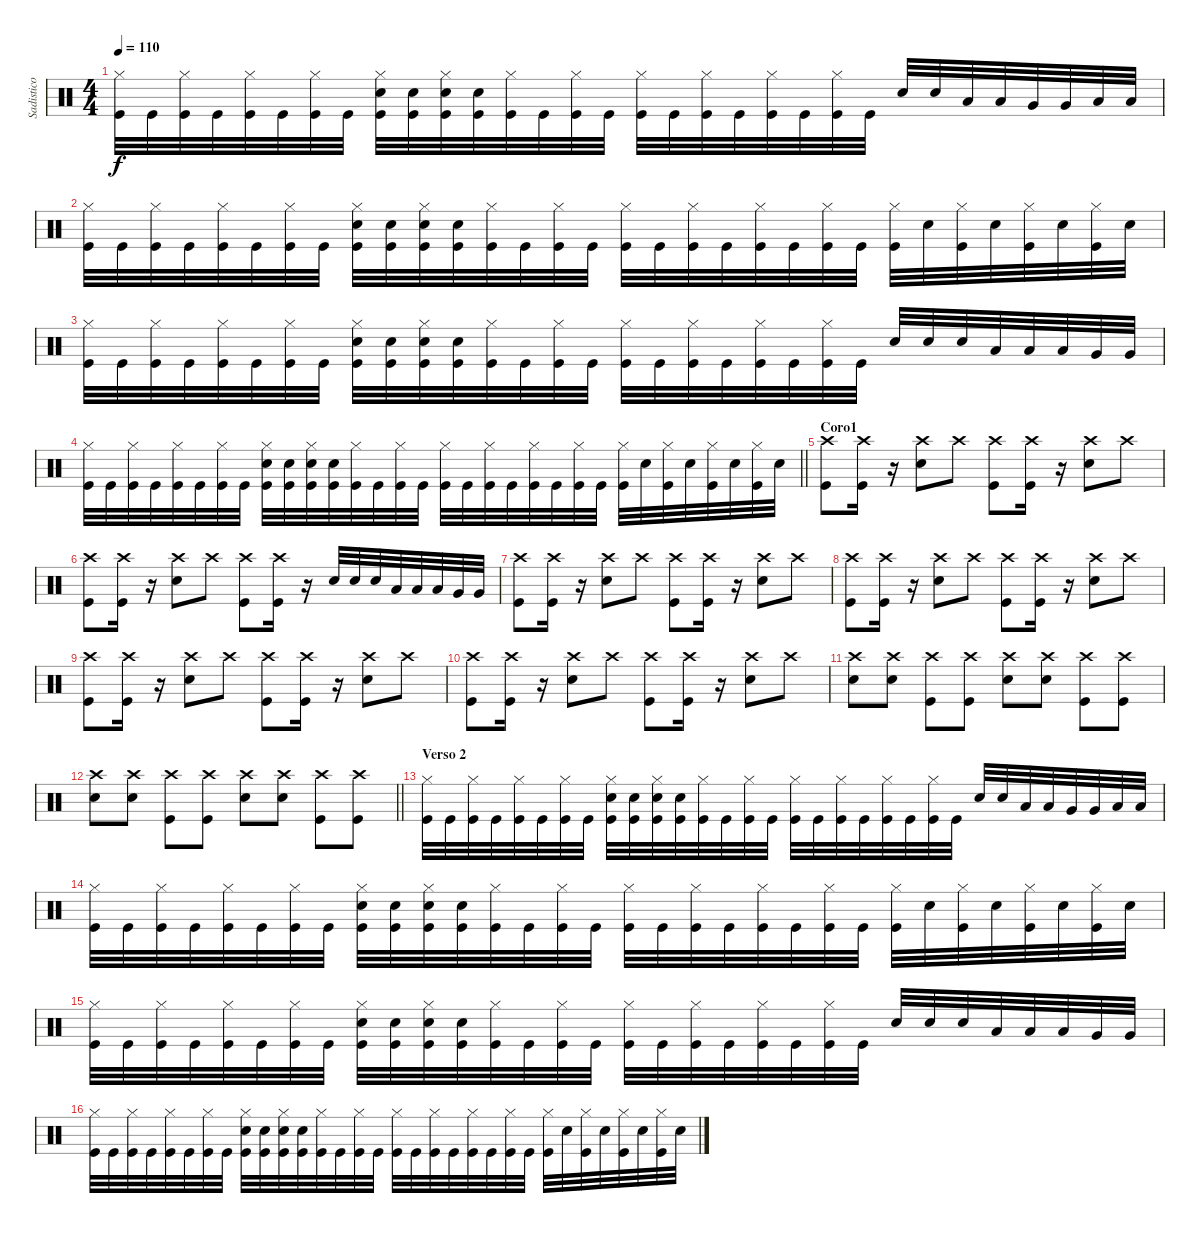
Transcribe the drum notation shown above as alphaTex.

\track ("Sadistico" "Sadistico") {solo instrument percussion}
\staff {score}
\articulation defaults
\ts (4 4)
\tempo 110
\clef neutral
\ks c
("Hi-Hat (closed)" "Kick (hit)").32{dy f} "Kick (hit)".32 ("Hi-Hat (closed)" "Kick (hit)").32 "Kick (hit)".32 ("Hi-Hat (closed)" "Kick (hit)").32 "Kick (hit)".32 ("Hi-Hat (closed)" "Kick (hit)").32 "Kick (hit)".32 ("Hi-Hat (closed)" "Snare (hit) 2" "Kick (hit)").32 ("Snare (hit) 2" "Kick (hit)").32 ("Hi-Hat (closed)" "Snare (hit) 2" "Kick (hit)").32 ("Snare (hit) 2" "Kick (hit)").32 ("Hi-Hat (closed)" "Kick (hit)").32 "Kick (hit)".32 ("Hi-Hat (closed)" "Kick (hit)").32 "Kick (hit)".32 ("Hi-Hat (closed)" "Kick (hit)").32 "Kick (hit)".32 ("Hi-Hat (closed)" "Kick (hit)").32 "Kick (hit)".32 ("Hi-Hat (closed)" "Kick (hit)").32 "Kick (hit)".32 ("Hi-Hat (closed)" "Kick (hit)").32 "Kick (hit)".32 "Snare (hit) 2".32 "Snare (hit) 2".32 "Low Tom (hit)".32 "Low Tom (hit)".32 "Very Low Tom (hit)".32 "Very Low Tom (hit)".32 "Low Floor Tom (hit)".32 "Low Floor Tom (hit)".32 |
("Hi-Hat (closed)" "Kick (hit)").32 "Kick (hit)".32 ("Hi-Hat (closed)" "Kick (hit)").32 "Kick (hit)".32 ("Hi-Hat (closed)" "Kick (hit)").32 "Kick (hit)".32 ("Hi-Hat (closed)" "Kick (hit)").32 "Kick (hit)".32 ("Hi-Hat (closed)" "Snare (hit) 2" "Kick (hit)").32 ("Snare (hit) 2" "Kick (hit)").32 ("Hi-Hat (closed)" "Snare (hit) 2" "Kick (hit)").32 ("Snare (hit) 2" "Kick (hit)").32 ("Hi-Hat (closed)" "Kick (hit)").32 "Kick (hit)".32 ("Hi-Hat (closed)" "Kick (hit)").32 "Kick (hit)".32 ("Hi-Hat (closed)" "Kick (hit)").32 "Kick (hit)".32 ("Hi-Hat (closed)" "Kick (hit)").32 "Kick (hit)".32 ("Hi-Hat (closed)" "Kick (hit)").32 "Kick (hit)".32 ("Hi-Hat (closed)" "Kick (hit)").32 "Kick (hit)".32 ("Hi-Hat (closed)" "Kick (hit)").32 "Snare (hit) 2".32 ("Hi-Hat (closed)" "Kick (hit)").32 "Snare (hit) 2".32 ("Hi-Hat (closed)" "Kick (hit)").32 "Snare (hit) 2".32 ("Hi-Hat (closed)" "Kick (hit)").32 "Snare (hit) 2".32 |
("Hi-Hat (closed)" "Kick (hit)").32 "Kick (hit)".32 ("Hi-Hat (closed)" "Kick (hit)").32 "Kick (hit)".32 ("Hi-Hat (closed)" "Kick (hit)").32 "Kick (hit)".32 ("Hi-Hat (closed)" "Kick (hit)").32 "Kick (hit)".32 ("Hi-Hat (closed)" "Snare (hit) 2" "Kick (hit)").32 ("Snare (hit) 2" "Kick (hit)").32 ("Hi-Hat (closed)" "Snare (hit) 2" "Kick (hit)").32 ("Snare (hit) 2" "Kick (hit)").32 ("Hi-Hat (closed)" "Kick (hit)").32 "Kick (hit)".32 ("Hi-Hat (closed)" "Kick (hit)").32 "Kick (hit)".32 ("Hi-Hat (closed)" "Kick (hit)").32 "Kick (hit)".32 ("Hi-Hat (closed)" "Kick (hit)").32 "Kick (hit)".32 ("Hi-Hat (closed)" "Kick (hit)").32 "Kick (hit)".32 ("Hi-Hat (closed)" "Kick (hit)").32 "Kick (hit)".32 "Snare (hit) 2".32 "Snare (hit) 2".32 "Snare (hit) 2".32 "Low Tom (hit)".32 "Low Tom (hit)".32 "Low Tom (hit)".32 "Very Low Tom (hit)".32 "Very Low Tom (hit)".32 |
\barLineRight lightlight
("Hi-Hat (closed)" "Kick (hit)").32 "Kick (hit)".32 ("Hi-Hat (closed)" "Kick (hit)").32 "Kick (hit)".32 ("Hi-Hat (closed)" "Kick (hit)").32 "Kick (hit)".32 ("Hi-Hat (closed)" "Kick (hit)").32 "Kick (hit)".32 ("Hi-Hat (closed)" "Snare (hit) 2" "Kick (hit)").32 ("Snare (hit) 2" "Kick (hit)").32 ("Hi-Hat (closed)" "Snare (hit) 2" "Kick (hit)").32 ("Snare (hit) 2" "Kick (hit)").32 ("Hi-Hat (closed)" "Kick (hit)").32 "Kick (hit)".32 ("Hi-Hat (closed)" "Kick (hit)").32 "Kick (hit)".32 ("Hi-Hat (closed)" "Kick (hit)").32 "Kick (hit)".32 ("Hi-Hat (closed)" "Kick (hit)").32 "Kick (hit)".32 ("Hi-Hat (closed)" "Kick (hit)").32 "Kick (hit)".32 ("Hi-Hat (closed)" "Kick (hit)").32 "Kick (hit)".32 ("Hi-Hat (closed)" "Kick (hit)").32 "Snare (hit) 2".32 ("Hi-Hat (closed)" "Kick (hit)").32 "Snare (hit) 2".32 ("Hi-Hat (closed)" "Kick (hit)").32 "Snare (hit) 2".32 ("Hi-Hat (closed)" "Kick (hit)").32 "Snare (hit) 2".32 |
\section ("" "Coro1")
("Crash high (hit)" "Kick (hit)").8 ("Crash high (hit)" "Kick (hit)").16 r.16 ("Crash high (hit)" "Snare (hit) 2").8 "Crash high (hit)".8 ("Crash high (hit)" "Kick (hit)").8 ("Crash high (hit)" "Kick (hit)").16 r.16 ("Crash high (hit)" "Snare (hit) 2").8 "Crash high (hit)".8 |
("Crash high (hit)" "Kick (hit)").8 ("Crash high (hit)" "Kick (hit)").16 r.16 ("Crash high (hit)" "Snare (hit) 2").8 "Crash high (hit)".8 ("Crash high (hit)" "Kick (hit)").8 ("Crash high (hit)" "Kick (hit)").16 r.16 "Snare (hit) 2".32 "Snare (hit) 2".32 "Snare (hit) 2".32 "Low Tom (hit)".32 "Low Tom (hit)".32 "Low Tom (hit)".32 "Very Low Tom (hit)".32 "Very Low Tom (hit)".32 |
("Crash high (hit)" "Kick (hit)").8 ("Crash high (hit)" "Kick (hit)").16 r.16 ("Crash high (hit)" "Snare (hit) 2").8 "Crash high (hit)".8 ("Crash high (hit)" "Kick (hit)").8 ("Crash high (hit)" "Kick (hit)").16 r.16 ("Crash high (hit)" "Snare (hit) 2").8 "Crash high (hit)".8 |
("Crash high (hit)" "Kick (hit)").8 ("Crash high (hit)" "Kick (hit)").16 r.16 ("Crash high (hit)" "Snare (hit) 2").8 "Crash high (hit)".8 ("Crash high (hit)" "Kick (hit)").8 ("Crash high (hit)" "Kick (hit)").16 r.16 ("Crash high (hit)" "Snare (hit) 2").8 "Crash high (hit)".8 |
("Crash high (hit)" "Kick (hit)").8 ("Crash high (hit)" "Kick (hit)").16 r.16 ("Crash high (hit)" "Snare (hit) 2").8 "Crash high (hit)".8 ("Crash high (hit)" "Kick (hit)").8 ("Crash high (hit)" "Kick (hit)").16 r.16 ("Crash high (hit)" "Snare (hit) 2").8 "Crash high (hit)".8 |
("Crash high (hit)" "Kick (hit)").8 ("Crash high (hit)" "Kick (hit)").16 r.16 ("Crash high (hit)" "Snare (hit) 2").8 "Crash high (hit)".8 ("Crash high (hit)" "Kick (hit)").8 ("Crash high (hit)" "Kick (hit)").16 r.16 ("Crash high (hit)" "Snare (hit) 2").8 "Crash high (hit)".8 |
("Crash high (hit)" "Snare (hit) 2").8 ("Crash high (hit)" "Snare (hit) 2").8 ("Crash high (hit)" "Kick (hit)").8 ("Crash high (hit)" "Kick (hit)").8 ("Crash high (hit)" "Snare (hit) 2").8 ("Crash high (hit)" "Snare (hit) 2").8 ("Crash high (hit)" "Kick (hit)").8 ("Crash high (hit)" "Kick (hit)").8 |
\barLineRight lightlight
("Crash high (hit)" "Snare (hit) 2").8 ("Crash high (hit)" "Snare (hit) 2").8 ("Crash high (hit)" "Kick (hit)").8 ("Crash high (hit)" "Kick (hit)").8 ("Crash high (hit)" "Snare (hit) 2").8 ("Crash high (hit)" "Snare (hit) 2").8 ("Crash high (hit)" "Kick (hit)").8 ("Crash high (hit)" "Kick (hit)").8 |
\section ("" "Verso 2")
("Hi-Hat (closed)" "Kick (hit)").32 "Kick (hit)".32 ("Hi-Hat (closed)" "Kick (hit)").32 "Kick (hit)".32 ("Hi-Hat (closed)" "Kick (hit)").32 "Kick (hit)".32 ("Hi-Hat (closed)" "Kick (hit)").32 "Kick (hit)".32 ("Hi-Hat (closed)" "Snare (hit) 2" "Kick (hit)").32 ("Snare (hit) 2" "Kick (hit)").32 ("Hi-Hat (closed)" "Snare (hit) 2" "Kick (hit)").32 ("Snare (hit) 2" "Kick (hit)").32 ("Hi-Hat (closed)" "Kick (hit)").32 "Kick (hit)".32 ("Hi-Hat (closed)" "Kick (hit)").32 "Kick (hit)".32 ("Hi-Hat (closed)" "Kick (hit)").32 "Kick (hit)".32 ("Hi-Hat (closed)" "Kick (hit)").32 "Kick (hit)".32 ("Hi-Hat (closed)" "Kick (hit)").32 "Kick (hit)".32 ("Hi-Hat (closed)" "Kick (hit)").32 "Kick (hit)".32 "Snare (hit) 2".32 "Snare (hit) 2".32 "Low Tom (hit)".32 "Low Tom (hit)".32 "Very Low Tom (hit)".32 "Very Low Tom (hit)".32 "Low Floor Tom (hit)".32 "Low Floor Tom (hit)".32 |
("Hi-Hat (closed)" "Kick (hit)").32 "Kick (hit)".32 ("Hi-Hat (closed)" "Kick (hit)").32 "Kick (hit)".32 ("Hi-Hat (closed)" "Kick (hit)").32 "Kick (hit)".32 ("Hi-Hat (closed)" "Kick (hit)").32 "Kick (hit)".32 ("Hi-Hat (closed)" "Snare (hit) 2" "Kick (hit)").32 ("Snare (hit) 2" "Kick (hit)").32 ("Hi-Hat (closed)" "Snare (hit) 2" "Kick (hit)").32 ("Snare (hit) 2" "Kick (hit)").32 ("Hi-Hat (closed)" "Kick (hit)").32 "Kick (hit)".32 ("Hi-Hat (closed)" "Kick (hit)").32 "Kick (hit)".32 ("Hi-Hat (closed)" "Kick (hit)").32 "Kick (hit)".32 ("Hi-Hat (closed)" "Kick (hit)").32 "Kick (hit)".32 ("Hi-Hat (closed)" "Kick (hit)").32 "Kick (hit)".32 ("Hi-Hat (closed)" "Kick (hit)").32 "Kick (hit)".32 ("Hi-Hat (closed)" "Kick (hit)").32 "Snare (hit) 2".32 ("Hi-Hat (closed)" "Kick (hit)").32 "Snare (hit) 2".32 ("Hi-Hat (closed)" "Kick (hit)").32 "Snare (hit) 2".32 ("Hi-Hat (closed)" "Kick (hit)").32 "Snare (hit) 2".32 |
("Hi-Hat (closed)" "Kick (hit)").32 "Kick (hit)".32 ("Hi-Hat (closed)" "Kick (hit)").32 "Kick (hit)".32 ("Hi-Hat (closed)" "Kick (hit)").32 "Kick (hit)".32 ("Hi-Hat (closed)" "Kick (hit)").32 "Kick (hit)".32 ("Hi-Hat (closed)" "Snare (hit) 2" "Kick (hit)").32 ("Snare (hit) 2" "Kick (hit)").32 ("Hi-Hat (closed)" "Snare (hit) 2" "Kick (hit)").32 ("Snare (hit) 2" "Kick (hit)").32 ("Hi-Hat (closed)" "Kick (hit)").32 "Kick (hit)".32 ("Hi-Hat (closed)" "Kick (hit)").32 "Kick (hit)".32 ("Hi-Hat (closed)" "Kick (hit)").32 "Kick (hit)".32 ("Hi-Hat (closed)" "Kick (hit)").32 "Kick (hit)".32 ("Hi-Hat (closed)" "Kick (hit)").32 "Kick (hit)".32 ("Hi-Hat (closed)" "Kick (hit)").32 "Kick (hit)".32 "Snare (hit) 2".32 "Snare (hit) 2".32 "Snare (hit) 2".32 "Low Tom (hit)".32 "Low Tom (hit)".32 "Low Tom (hit)".32 "Very Low Tom (hit)".32 "Very Low Tom (hit)".32 |
("Hi-Hat (closed)" "Kick (hit)").32 "Kick (hit)".32 ("Hi-Hat (closed)" "Kick (hit)").32 "Kick (hit)".32 ("Hi-Hat (closed)" "Kick (hit)").32 "Kick (hit)".32 ("Hi-Hat (closed)" "Kick (hit)").32 "Kick (hit)".32 ("Hi-Hat (closed)" "Snare (hit) 2" "Kick (hit)").32 ("Snare (hit) 2" "Kick (hit)").32 ("Hi-Hat (closed)" "Snare (hit) 2" "Kick (hit)").32 ("Snare (hit) 2" "Kick (hit)").32 ("Hi-Hat (closed)" "Kick (hit)").32 "Kick (hit)".32 ("Hi-Hat (closed)" "Kick (hit)").32 "Kick (hit)".32 ("Hi-Hat (closed)" "Kick (hit)").32 "Kick (hit)".32 ("Hi-Hat (closed)" "Kick (hit)").32 "Kick (hit)".32 ("Hi-Hat (closed)" "Kick (hit)").32 "Kick (hit)".32 ("Hi-Hat (closed)" "Kick (hit)").32 "Kick (hit)".32 ("Hi-Hat (closed)" "Kick (hit)").32 "Snare (hit) 2".32 ("Hi-Hat (closed)" "Kick (hit)").32 "Snare (hit) 2".32 ("Hi-Hat (closed)" "Kick (hit)").32 "Snare (hit) 2".32 ("Hi-Hat (closed)" "Kick (hit)").32 "Snare (hit) 2".32
